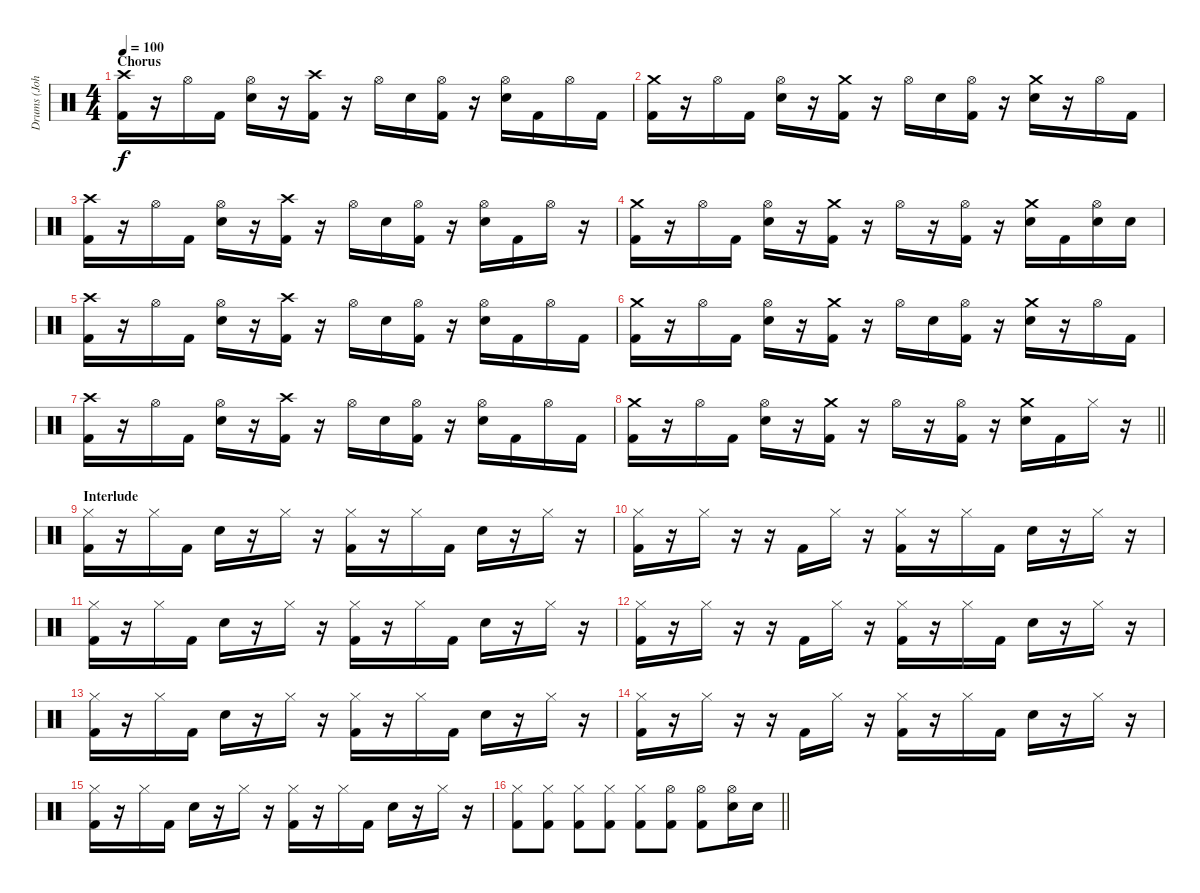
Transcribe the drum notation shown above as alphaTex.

\track ("Drums (John Otto)" "Drums (Joh") {instrument percussion}
\staff {score}
\articulation defaults
\ts (4 4)
\section ("" "Chorus")
\tempo 100
\clef neutral
\ks c
("Crash high (hit)" "Kick (hit) 2").16{dy f} r.16 "Hi-Hat (open)".16 "Kick (hit) 2".16 ("Hi-Hat (open)" "Electric Snare (hit)").16 r.16 ("Crash high (hit)" "Kick (hit) 2").16 r.16 "Hi-Hat (open)".16 "Electric Snare (hit)".16 ("Hi-Hat (open)" "Kick (hit) 2").16 r.16 ("Hi-Hat (open)" "Electric Snare (hit)").16 "Kick (hit) 2".16 "Hi-Hat (open)".16 "Kick (hit) 2".16 |
("Crash medium (hit)" "Kick (hit) 2").16 r.16 "Hi-Hat (open)".16 "Kick (hit) 2".16 ("Hi-Hat (open)" "Electric Snare (hit)").16 r.16 ("Crash medium (hit)" "Kick (hit) 2").16 r.16 "Hi-Hat (open)".16 "Electric Snare (hit)".16 ("Hi-Hat (open)" "Kick (hit) 2").16 r.16 ("Crash medium (hit)" "Electric Snare (hit)").16 r.16 "Hi-Hat (open)".16 "Kick (hit) 2".16 |
("Crash high (hit)" "Kick (hit) 2").16 r.16 "Hi-Hat (open)".16 "Kick (hit) 2".16 ("Hi-Hat (open)" "Electric Snare (hit)").16 r.16 ("Crash high (hit)" "Kick (hit) 2").16 r.16 "Hi-Hat (open)".16 "Electric Snare (hit)".16 ("Hi-Hat (open)" "Kick (hit) 2").16 r.16 ("Hi-Hat (open)" "Electric Snare (hit)").16 "Kick (hit) 2".16 "Hi-Hat (open)".16 r.16 |
("Crash medium (hit)" "Kick (hit) 2").16 r.16 "Hi-Hat (open)".16 "Kick (hit) 2".16 ("Hi-Hat (open)" "Electric Snare (hit)").16 r.16 ("Crash medium (hit)" "Kick (hit) 2").16 r.16 "Hi-Hat (open)".16 r.16 ("Hi-Hat (open)" "Kick (hit) 2").16 r.16 ("Crash medium (hit)" "Electric Snare (hit)").16 "Kick (hit) 2".16 ("Hi-Hat (open)" "Electric Snare (hit)").16 "Electric Snare (hit)".16 |
("Crash high (hit)" "Kick (hit) 2").16 r.16 "Hi-Hat (open)".16 "Kick (hit) 2".16 ("Hi-Hat (open)" "Electric Snare (hit)").16 r.16 ("Crash high (hit)" "Kick (hit) 2").16 r.16 "Hi-Hat (open)".16 "Electric Snare (hit)".16 ("Hi-Hat (open)" "Kick (hit) 2").16 r.16 ("Hi-Hat (open)" "Electric Snare (hit)").16 "Kick (hit) 2".16 "Hi-Hat (open)".16 "Kick (hit) 2".16 |
("Crash medium (hit)" "Kick (hit) 2").16 r.16 "Hi-Hat (open)".16 "Kick (hit) 2".16 ("Hi-Hat (open)" "Electric Snare (hit)").16 r.16 ("Crash medium (hit)" "Kick (hit) 2").16 r.16 "Hi-Hat (open)".16 "Electric Snare (hit)".16 ("Hi-Hat (open)" "Kick (hit) 2").16 r.16 ("Crash medium (hit)" "Electric Snare (hit)").16 r.16 "Hi-Hat (open)".16 "Kick (hit) 2".16 |
("Crash high (hit)" "Kick (hit) 2").16 r.16 "Hi-Hat (open)".16 "Kick (hit) 2".16 ("Hi-Hat (open)" "Electric Snare (hit)").16 r.16 ("Crash high (hit)" "Kick (hit) 2").16 r.16 "Hi-Hat (open)".16 "Electric Snare (hit)".16 ("Hi-Hat (open)" "Kick (hit) 2").16 r.16 ("Hi-Hat (open)" "Electric Snare (hit)").16 "Kick (hit) 2".16 "Hi-Hat (open)".16 "Kick (hit) 2".16 |
\barLineRight lightlight
("Crash medium (hit)" "Kick (hit) 2").16 r.16 "Hi-Hat (open)".16 "Kick (hit) 2".16 ("Hi-Hat (open)" "Electric Snare (hit)").16 r.16 ("Crash medium (hit)" "Kick (hit) 2").16 r.16 "Hi-Hat (open)".16 r.16 ("Hi-Hat (open)" "Kick (hit) 2").16 r.16 ("Crash medium (hit)" "Electric Snare (hit)").16 "Kick (hit) 2".16 "Hi-Hat (closed)".16 r.16 |
\section ("" "Interlude")
("Hi-Hat (closed)" "Kick (hit) 2").16 r.16 "Hi-Hat (closed)".16 "Kick (hit) 2".16 "Electric Snare (hit)".16 r.16 "Hi-Hat (closed)".16 r.16 ("Hi-Hat (closed)" "Kick (hit) 2").16 r.16 "Hi-Hat (closed)".16 "Kick (hit) 2".16 "Electric Snare (hit)".16 r.16 "Hi-Hat (closed)".16 r.16 |
("Hi-Hat (closed)" "Kick (hit) 2").16 r.16 "Hi-Hat (closed)".16 r.16 r.16 "Kick (hit) 2".16 "Hi-Hat (closed)".16 r.16 ("Hi-Hat (closed)" "Kick (hit) 2").16 r.16 "Hi-Hat (closed)".16 "Kick (hit) 2".16 "Electric Snare (hit)".16 r.16 "Hi-Hat (closed)".16 r.16 |
("Hi-Hat (closed)" "Kick (hit) 2").16 r.16 "Hi-Hat (closed)".16 "Kick (hit) 2".16 "Electric Snare (hit)".16 r.16 "Hi-Hat (closed)".16 r.16 ("Hi-Hat (closed)" "Kick (hit) 2").16 r.16 "Hi-Hat (closed)".16 "Kick (hit) 2".16 "Electric Snare (hit)".16 r.16 "Hi-Hat (closed)".16 r.16 |
("Hi-Hat (closed)" "Kick (hit) 2").16 r.16 "Hi-Hat (closed)".16 r.16 r.16 "Kick (hit) 2".16 "Hi-Hat (closed)".16 r.16 ("Hi-Hat (closed)" "Kick (hit) 2").16 r.16 "Hi-Hat (closed)".16 "Kick (hit) 2".16 "Electric Snare (hit)".16 r.16 "Hi-Hat (closed)".16 r.16 |
("Hi-Hat (closed)" "Kick (hit) 2").16 r.16 "Hi-Hat (closed)".16 "Kick (hit) 2".16 "Electric Snare (hit)".16 r.16 "Hi-Hat (closed)".16 r.16 ("Hi-Hat (closed)" "Kick (hit) 2").16 r.16 "Hi-Hat (closed)".16 "Kick (hit) 2".16 "Electric Snare (hit)".16 r.16 "Hi-Hat (closed)".16 r.16 |
("Hi-Hat (closed)" "Kick (hit) 2").16 r.16 "Hi-Hat (closed)".16 r.16 r.16 "Kick (hit) 2".16 "Hi-Hat (closed)".16 r.16 ("Hi-Hat (closed)" "Kick (hit) 2").16 r.16 "Hi-Hat (closed)".16 "Kick (hit) 2".16 "Electric Snare (hit)".16 r.16 "Hi-Hat (closed)".16 r.16 |
("Hi-Hat (closed)" "Kick (hit) 2").16 r.16 "Hi-Hat (closed)".16 "Kick (hit) 2".16 "Electric Snare (hit)".16 r.16 "Hi-Hat (closed)".16 r.16 ("Hi-Hat (closed)" "Kick (hit) 2").16 r.16 "Hi-Hat (closed)".16 "Kick (hit) 2".16 "Electric Snare (hit)".16 r.16 "Hi-Hat (closed)".16 r.16 |
\barLineRight lightlight
("Hi-Hat (closed)" "Kick (hit) 2").8 ("Hi-Hat (closed)" "Kick (hit) 2").8 ("Hi-Hat (closed)" "Kick (hit) 2").8 ("Hi-Hat (closed)" "Kick (hit) 2").8 ("Hi-Hat (closed)" "Kick (hit) 2").8 ("Hi-Hat (open)" "Kick (hit) 2").8 ("Hi-Hat (open)" "Kick (hit) 2").8 ("Hi-Hat (open)" "Electric Snare (hit)").16 "Electric Snare (hit)".16
